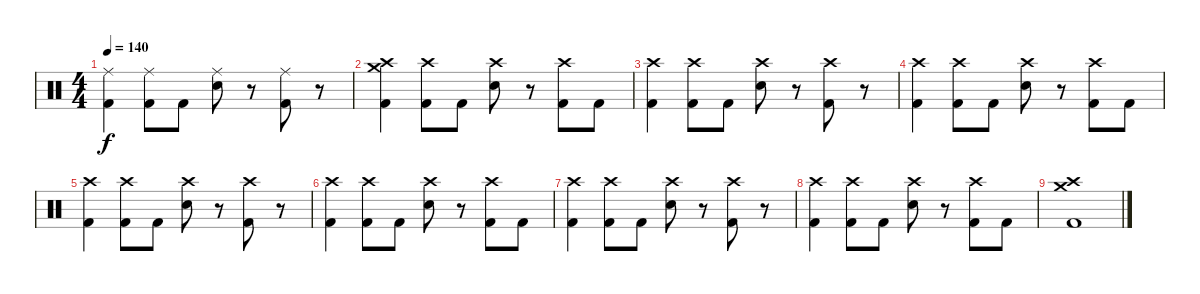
\track "" {instrument percussion}
\staff {score}
\articulation defaults
\ts (4 4)
\tempo 140
\clef neutral
\ks c
("Kick (hit) 2" "Ride (middle)").4{dy f} ("Kick (hit) 2" "Ride (middle)").8 "Kick (hit) 2".8 ("Snare (hit) 2" "Ride (middle)").8 r.8 ("Kick (hit) 2" "Ride (middle)").8 r.8 |
("Kick (hit) 2" "Crash high (hit)" "Crash medium (hit)").4 ("Kick (hit) 2" "Crash high (hit)").8 "Kick (hit) 2".8 ("Snare (hit) 2" "Crash high (hit)").8 r.8 ("Kick (hit) 2" "Crash high (hit)").8 "Kick (hit) 2".8 |
("Kick (hit) 2" "Crash high (hit)").4 ("Kick (hit) 2" "Crash high (hit)").8 "Kick (hit) 2".8 ("Snare (hit) 2" "Crash high (hit)").8 r.8 ("Kick (hit) 2" "Crash high (hit)").8 r.8 |
("Kick (hit) 2" "Crash high (hit)").4 ("Kick (hit) 2" "Crash high (hit)").8 "Kick (hit) 2".8 ("Snare (hit) 2" "Crash high (hit)").8 r.8 ("Kick (hit) 2" "Crash high (hit)").8 "Kick (hit) 2".8 |
("Kick (hit) 2" "Crash high (hit)").4 ("Kick (hit) 2" "Crash high (hit)").8 "Kick (hit) 2".8 ("Snare (hit) 2" "Crash high (hit)").8 r.8 ("Kick (hit) 2" "Crash high (hit)").8 r.8 |
("Kick (hit) 2" "Crash high (hit)").4 ("Kick (hit) 2" "Crash high (hit)").8 "Kick (hit) 2".8 ("Snare (hit) 2" "Crash high (hit)").8 r.8 ("Kick (hit) 2" "Crash high (hit)").8 "Kick (hit) 2".8 |
("Kick (hit) 2" "Crash high (hit)").4 ("Kick (hit) 2" "Crash high (hit)").8 "Kick (hit) 2".8 ("Snare (hit) 2" "Crash high (hit)").8 r.8 ("Kick (hit) 2" "Crash high (hit)").8 r.8 |
("Kick (hit) 2" "Crash high (hit)").4 ("Kick (hit) 2" "Crash high (hit)").8 "Kick (hit) 2".8 ("Snare (hit) 2" "Crash high (hit)").8 r.8 ("Kick (hit) 2" "Crash high (hit)").8 "Kick (hit) 2".8 |
("Kick (hit) 2" "Crash medium (hit)" "Crash high (hit)").1
